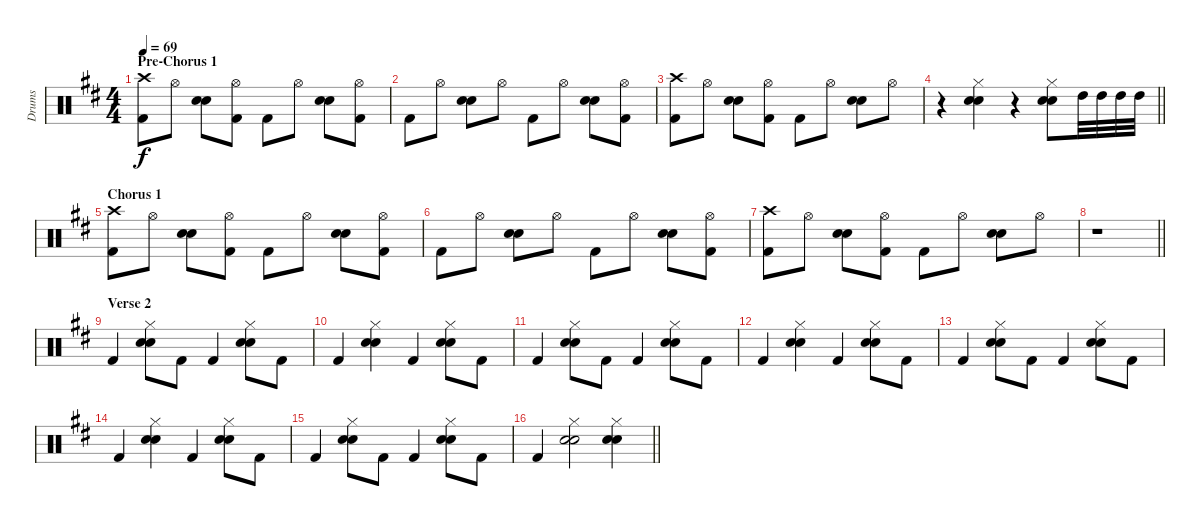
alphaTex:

\track ("Drums" "Drums") {instrument percussion}
\staff {score}
\articulation defaults
\ts (4 4)
\section ("" "Pre-Chorus 1")
\tempo 69
\clef neutral
\ks d
("Crash high (hit)" "Kick (hit) 2").8{dy f} "Hi-Hat (open)".8 ("Hand Clap (hit)" "Snare (hit) 2").8 ("Hi-Hat (open)" "Kick (hit) 2").8 "Kick (hit) 2".8 "Hi-Hat (open)".8 ("Hand Clap (hit)" "Snare (hit) 2").8 ("Hi-Hat (open)" "Kick (hit) 2").8 |
"Kick (hit) 2".8 "Hi-Hat (open)".8 ("Hand Clap (hit)" "Snare (hit) 2").8 "Hi-Hat (open)".8 "Kick (hit) 2".8 "Hi-Hat (open)".8 ("Hand Clap (hit)" "Snare (hit) 2").8 ("Hi-Hat (open)" "Kick (hit) 2").8 |
("Crash high (hit)" "Kick (hit) 2").8 "Hi-Hat (open)".8 ("Hand Clap (hit)" "Snare (hit) 2").8 ("Hi-Hat (open)" "Kick (hit) 2").8 "Kick (hit) 2".8 "Hi-Hat (open)".8 ("Hand Clap (hit)" "Snare (hit) 2").8 "Hi-Hat (open)".8 |
\barLineRight lightlight
r.4 ("Hi-Hat (closed)" "Hand Clap (hit)" "Snare (hit) 2").4 r.4 ("Hi-Hat (closed)" "Hand Clap (hit)" "Snare (hit) 2").8 "High Tom (hit)".32 "High Tom (hit)".32 "High Tom (hit)".32 "High Tom (hit)".32 |
\section ("" "Chorus 1")
("Crash high (hit)" "Kick (hit) 2").8 "Hi-Hat (open)".8 ("Hand Clap (hit)" "Snare (hit) 2").8 ("Hi-Hat (open)" "Kick (hit) 2").8 "Kick (hit) 2".8 "Hi-Hat (open)".8 ("Hand Clap (hit)" "Snare (hit) 2").8 ("Hi-Hat (open)" "Kick (hit) 2").8 |
"Kick (hit) 2".8 "Hi-Hat (open)".8 ("Hand Clap (hit)" "Snare (hit) 2").8 "Hi-Hat (open)".8 "Kick (hit) 2".8 "Hi-Hat (open)".8 ("Hand Clap (hit)" "Snare (hit) 2").8 ("Hi-Hat (open)" "Kick (hit) 2").8 |
("Crash high (hit)" "Kick (hit) 2").8 "Hi-Hat (open)".8 ("Hand Clap (hit)" "Snare (hit) 2").8 ("Hi-Hat (open)" "Kick (hit) 2").8 "Kick (hit) 2".8 "Hi-Hat (open)".8 ("Hand Clap (hit)" "Snare (hit) 2").8 "Hi-Hat (open)".8 |
\barLineRight lightlight
r.1 |
\section ("" "Verse 2")
\ks bminor "Kick (hit) 2".4
("Hi-Hat (closed)" "Hand Clap (hit)" "Snare (hit) 2").8 "Kick (hit) 2".8 "Kick (hit) 2".4 ("Hi-Hat (closed)" "Hand Clap (hit)" "Snare (hit) 2").8 "Kick (hit) 2".8 |
"Kick (hit) 2".4 ("Hi-Hat (closed)" "Hand Clap (hit)" "Snare (hit) 2").4 "Kick (hit) 2".4 ("Hi-Hat (closed)" "Hand Clap (hit)" "Snare (hit) 2").8 "Kick (hit) 2".8 |
"Kick (hit) 2".4 ("Hi-Hat (closed)" "Hand Clap (hit)" "Snare (hit) 2").8 "Kick (hit) 2".8 "Kick (hit) 2".4 ("Hi-Hat (closed)" "Hand Clap (hit)" "Snare (hit) 2").8 "Kick (hit) 2".8 |
"Kick (hit) 2".4 ("Hi-Hat (closed)" "Hand Clap (hit)" "Snare (hit) 2").4 "Kick (hit) 2".4 ("Hi-Hat (closed)" "Hand Clap (hit)" "Snare (hit) 2").8 "Kick (hit) 2".8 |
"Kick (hit) 2".4 ("Hi-Hat (closed)" "Hand Clap (hit)" "Snare (hit) 2").8 "Kick (hit) 2".8 "Kick (hit) 2".4 ("Hi-Hat (closed)" "Hand Clap (hit)" "Snare (hit) 2").8 "Kick (hit) 2".8 |
"Kick (hit) 2".4 ("Hi-Hat (closed)" "Hand Clap (hit)" "Snare (hit) 2").4 "Kick (hit) 2".4 ("Hi-Hat (closed)" "Hand Clap (hit)" "Snare (hit) 2").8 "Kick (hit) 2".8 |
"Kick (hit) 2".4 ("Hi-Hat (closed)" "Hand Clap (hit)" "Snare (hit) 2").8 "Kick (hit) 2".8 "Kick (hit) 2".4 ("Hi-Hat (closed)" "Hand Clap (hit)" "Snare (hit) 2").8 "Kick (hit) 2".8 |
\barLineRight lightlight
\ks d "Kick (hit) 2".4
("Hi-Hat (closed)" "Hand Clap (hit)" "Snare (hit) 2").2 ("Hi-Hat (closed)" "Hand Clap (hit)" "Snare (hit) 2").4
